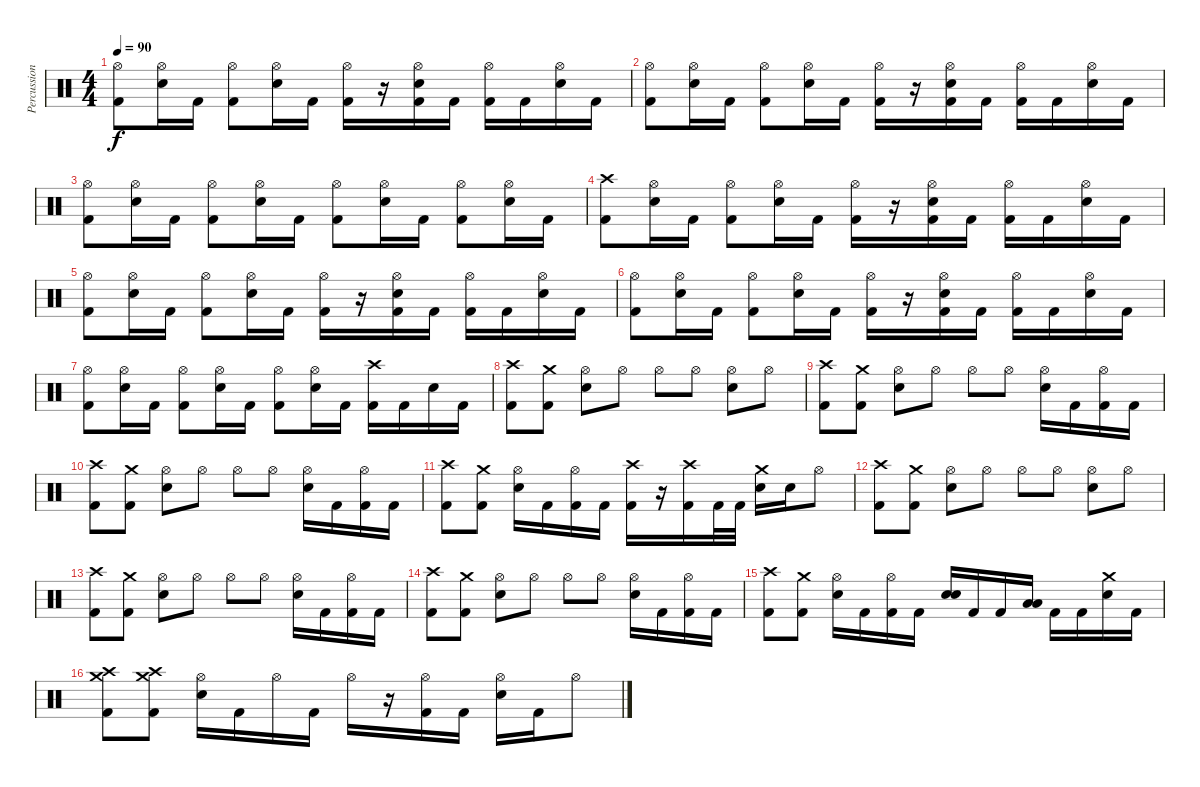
\track ("Percussion" "Percussion") {instrument percussion}
\staff {score}
\articulation defaults
\ts (4 4)
\tempo 90
\clef neutral
\ks c
("Hi-Hat (open)" "Kick (hit) 2").8{dy f} ("Hi-Hat (open)" "Electric Snare (hit)").16 "Kick (hit) 2".16 ("Hi-Hat (open)" "Kick (hit) 2").8 ("Hi-Hat (open)" "Electric Snare (hit)").16 "Kick (hit) 2".16 ("Hi-Hat (open)" "Kick (hit) 2").16 r.16 ("Hi-Hat (open)" "Electric Snare (hit)" "Kick (hit) 2").16 "Kick (hit) 2".16 ("Hi-Hat (open)" "Kick (hit) 2").16 "Kick (hit) 2".16 ("Hi-Hat (open)" "Electric Snare (hit)").16 "Kick (hit) 2".16 |
("Hi-Hat (open)" "Kick (hit) 2").8 ("Hi-Hat (open)" "Electric Snare (hit)").16 "Kick (hit) 2".16 ("Hi-Hat (open)" "Kick (hit) 2").8 ("Hi-Hat (open)" "Electric Snare (hit)").16 "Kick (hit) 2".16 ("Hi-Hat (open)" "Kick (hit) 2").16 r.16 ("Hi-Hat (open)" "Electric Snare (hit)" "Kick (hit) 2").16 "Kick (hit) 2".16 ("Hi-Hat (open)" "Kick (hit) 2").16 "Kick (hit) 2".16 ("Hi-Hat (open)" "Electric Snare (hit)").16 "Kick (hit) 2".16 |
("Hi-Hat (open)" "Kick (hit) 2").8 ("Hi-Hat (open)" "Electric Snare (hit)").16 "Kick (hit) 2".16 ("Hi-Hat (open)" "Kick (hit) 2").8 ("Hi-Hat (open)" "Electric Snare (hit)").16 "Kick (hit) 2".16 ("Hi-Hat (open)" "Kick (hit) 2").8 ("Hi-Hat (open)" "Electric Snare (hit)").16 "Kick (hit) 2".16 ("Hi-Hat (open)" "Kick (hit) 2").8 ("Hi-Hat (open)" "Electric Snare (hit)").16 "Kick (hit) 2".16 |
("Crash high (hit)" "Kick (hit) 2").8 ("Hi-Hat (open)" "Electric Snare (hit)").16 "Kick (hit) 2".16 ("Hi-Hat (open)" "Kick (hit) 2").8 ("Hi-Hat (open)" "Electric Snare (hit)").16 "Kick (hit) 2".16 ("Hi-Hat (open)" "Kick (hit) 2").16 r.16 ("Hi-Hat (open)" "Electric Snare (hit)" "Kick (hit) 2").16 "Kick (hit) 2".16 ("Hi-Hat (open)" "Kick (hit) 2").16 "Kick (hit) 2".16 ("Hi-Hat (open)" "Electric Snare (hit)").16 "Kick (hit) 2".16 |
("Hi-Hat (open)" "Kick (hit) 2").8 ("Hi-Hat (open)" "Electric Snare (hit)").16 "Kick (hit) 2".16 ("Hi-Hat (open)" "Kick (hit) 2").8 ("Hi-Hat (open)" "Electric Snare (hit)").16 "Kick (hit) 2".16 ("Hi-Hat (open)" "Kick (hit) 2").16 r.16 ("Hi-Hat (open)" "Electric Snare (hit)" "Kick (hit) 2").16 "Kick (hit) 2".16 ("Hi-Hat (open)" "Kick (hit) 2").16 "Kick (hit) 2".16 ("Hi-Hat (open)" "Electric Snare (hit)").16 "Kick (hit) 2".16 |
("Hi-Hat (open)" "Kick (hit) 2").8 ("Hi-Hat (open)" "Electric Snare (hit)").16 "Kick (hit) 2".16 ("Hi-Hat (open)" "Kick (hit) 2").8 ("Hi-Hat (open)" "Electric Snare (hit)").16 "Kick (hit) 2".16 ("Hi-Hat (open)" "Kick (hit) 2").16 r.16 ("Hi-Hat (open)" "Electric Snare (hit)" "Kick (hit) 2").16 "Kick (hit) 2".16 ("Hi-Hat (open)" "Kick (hit) 2").16 "Kick (hit) 2".16 ("Hi-Hat (open)" "Electric Snare (hit)").16 "Kick (hit) 2".16 |
("Hi-Hat (open)" "Kick (hit) 2").8 ("Hi-Hat (open)" "Electric Snare (hit)").16 "Kick (hit) 2".16 ("Hi-Hat (open)" "Kick (hit) 2").8 ("Hi-Hat (open)" "Electric Snare (hit)").16 "Kick (hit) 2".16 ("Hi-Hat (open)" "Kick (hit) 2").8 ("Hi-Hat (open)" "Electric Snare (hit)").16 "Kick (hit) 2".16 ("Crash high (hit)" "Kick (hit) 2").16 "Kick (hit) 2".16 "Electric Snare (hit)".16 "Kick (hit) 2".16 |
("Crash high (hit)" "Kick (hit) 2").8 ("Crash medium (hit)" "Kick (hit) 2").8 ("Hi-Hat (open)" "Electric Snare (hit)").8 "Hi-Hat (open)".8 "Hi-Hat (open)".8 "Hi-Hat (open)".8 ("Hi-Hat (open)" "Electric Snare (hit)").8 "Hi-Hat (open)".8 |
("Crash high (hit)" "Kick (hit) 2").8 ("Crash medium (hit)" "Kick (hit) 2").8 ("Hi-Hat (open)" "Electric Snare (hit)").8 "Hi-Hat (open)".8 "Hi-Hat (open)".8 "Hi-Hat (open)".8 ("Hi-Hat (open)" "Electric Snare (hit)").16 "Kick (hit) 2".16 ("Hi-Hat (open)" "Kick (hit) 2").16 "Kick (hit) 2".16 |
("Crash high (hit)" "Kick (hit) 2").8 ("Crash medium (hit)" "Kick (hit) 2").8 ("Hi-Hat (open)" "Electric Snare (hit)").8 "Hi-Hat (open)".8 "Hi-Hat (open)".8 "Hi-Hat (open)".8 ("Hi-Hat (open)" "Electric Snare (hit)").16 "Kick (hit) 2".16 ("Hi-Hat (open)" "Kick (hit) 2").16 "Kick (hit) 2".16 |
("Crash high (hit)" "Kick (hit) 2").8 ("Crash medium (hit)" "Kick (hit) 2").8 ("Hi-Hat (open)" "Electric Snare (hit)").16 "Kick (hit) 2".16 ("Hi-Hat (open)" "Kick (hit) 2").16 "Kick (hit) 2".16 ("Crash high (hit)" "Kick (hit) 2").16 r.16 ("Crash high (hit)" "Kick (hit) 2").16 "Kick (hit) 2".32 "Kick (hit) 2".32 ("Crash medium (hit)" "Electric Snare (hit)").16 "Electric Snare (hit)".16 "Hi-Hat (open)".8 |
("Crash high (hit)" "Kick (hit) 2").8 ("Crash medium (hit)" "Kick (hit) 2").8 ("Hi-Hat (open)" "Electric Snare (hit)").8 "Hi-Hat (open)".8 "Hi-Hat (open)".8 "Hi-Hat (open)".8 ("Hi-Hat (open)" "Electric Snare (hit)").8 "Hi-Hat (open)".8 |
("Crash high (hit)" "Kick (hit) 2").8 ("Crash medium (hit)" "Kick (hit) 2").8 ("Hi-Hat (open)" "Electric Snare (hit)").8 "Hi-Hat (open)".8 "Hi-Hat (open)".8 "Hi-Hat (open)".8 ("Hi-Hat (open)" "Electric Snare (hit)").16 "Kick (hit) 2".16 ("Hi-Hat (open)" "Kick (hit) 2").16 "Kick (hit) 2".16 |
("Crash high (hit)" "Kick (hit) 2").8 ("Crash medium (hit)" "Kick (hit) 2").8 ("Hi-Hat (open)" "Electric Snare (hit)").8 "Hi-Hat (open)".8 "Hi-Hat (open)".8 "Hi-Hat (open)".8 ("Hi-Hat (open)" "Electric Snare (hit)").16 "Kick (hit) 2".16 ("Hi-Hat (open)" "Kick (hit) 2").16 "Kick (hit) 2".16 |
("Crash high (hit)" "Kick (hit) 2").8 ("Crash medium (hit)" "Kick (hit) 2").8 ("Hi-Hat (open)" "Electric Snare (hit)").16 "Kick (hit) 2".16 ("Hi-Hat (open)" "Kick (hit) 2").16 "Kick (hit) 2".16 ("Electric Snare (hit)" "Electric Snare (hit)").16{bu 480} "Kick (hit) 2".16 "Kick (hit) 2".16 ("Low Tom (hit)" "Low Tom (hit)").16{bu 480} "Kick (hit) 2".16 "Kick (hit) 2".16 ("Crash medium (hit)" "Electric Snare (hit)").16 "Kick (hit) 2".16 |
("Crash high (hit)" "Crash medium (hit)" "Kick (hit) 2").8 ("Crash high (hit)" "Crash medium (hit)" "Kick (hit) 2").8 ("Hi-Hat (open)" "Electric Snare (hit)").16 "Kick (hit) 2".16 "Hi-Hat (open)".16 "Kick (hit) 2".16 "Hi-Hat (open)".16 r.16 ("Hi-Hat (open)" "Kick (hit) 2").16 "Kick (hit) 2".16 ("Hi-Hat (open)" "Electric Snare (hit)").16 "Kick (hit) 2".16 "Hi-Hat (open)".8
